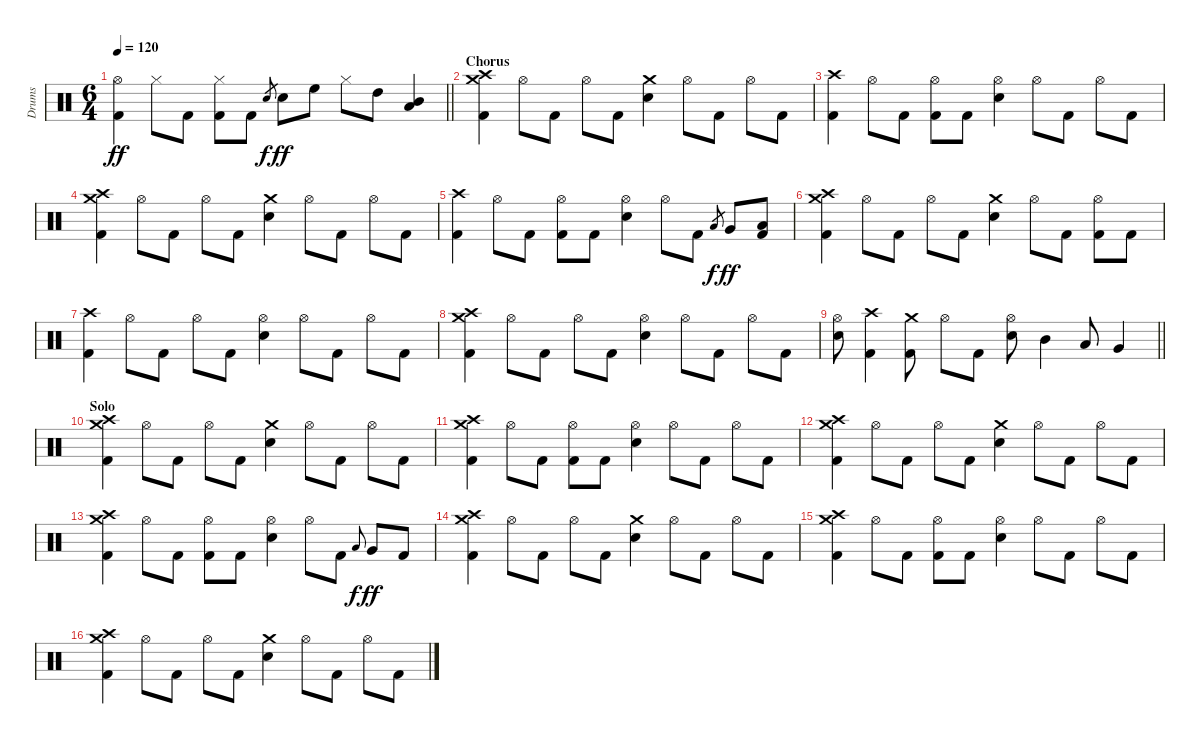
\track ("Drums" "Drums") {instrument percussion}
\staff {score}
\articulation defaults
\ts (6 4)
\tempo 120
\clef neutral
\barLineRight lightlight
\ks c
("Hi-Hat (open)" "Kick (hit) 2").4{dy ff} "Hi-Hat (closed)".8 "Kick (hit) 2".8 ("Hi-Hat (closed)" "Kick (hit) 2").8 "Kick (hit) 2".8 "Electric Snare (hit)".8{gr dy f} "Electric Snare (hit)".8{dy ff} "High Floor Tom (hit)".8 "Hi-Hat (closed)".8 "High Tom (hit)".8 ("Mid Tom (hit)" "Low Tom (hit)").4 |
\section ("" "Chorus")
("Crash medium (hit)" "Crash high (hit)" "Kick (hit) 2").4 "Hi-Hat (open)".8 "Kick (hit) 2".8 "Hi-Hat (open)".8 "Kick (hit) 2".8 ("Crash medium (hit)" "Electric Snare (hit)").4 "Hi-Hat (open)".8 "Kick (hit) 2".8 "Hi-Hat (open)".8 "Kick (hit) 2".8 |
("Crash high (hit)" "Kick (hit) 2").4 "Hi-Hat (open)".8 "Kick (hit) 2".8 ("Hi-Hat (open)" "Kick (hit) 2").8 "Kick (hit) 2".8 ("Hi-Hat (open)" "Electric Snare (hit)").4 "Hi-Hat (open)".8 "Kick (hit) 2".8 "Hi-Hat (open)".8 "Kick (hit) 2".8 |
("Crash medium (hit)" "Crash high (hit)" "Kick (hit) 2").4 "Hi-Hat (open)".8 "Kick (hit) 2".8 "Hi-Hat (open)".8 "Kick (hit) 2".8 ("Crash medium (hit)" "Electric Snare (hit)").4 "Hi-Hat (open)".8 "Kick (hit) 2".8 "Hi-Hat (open)".8 "Kick (hit) 2".8 |
("Crash high (hit)" "Kick (hit) 2").4 "Hi-Hat (open)".8 "Kick (hit) 2".8 ("Hi-Hat (open)" "Kick (hit) 2").8 "Kick (hit) 2".8 ("Hi-Hat (open)" "Electric Snare (hit)").4 "Hi-Hat (open)".8 "Kick (hit) 2".8 "Low Tom (hit)".8{gr dy f} "Very Low Tom (hit)".8{dy ff} ("Low Floor Tom (hit)" "Kick (hit) 2").8 |
("Crash medium (hit)" "Crash high (hit)" "Kick (hit) 2").4 "Hi-Hat (open)".8 "Kick (hit) 2".8 "Hi-Hat (open)".8 "Kick (hit) 2".8 ("Crash medium (hit)" "Electric Snare (hit)").4 "Hi-Hat (open)".8 "Kick (hit) 2".8 ("Hi-Hat (open)" "Kick (hit) 2").8 "Kick (hit) 2".8 |
("Crash high (hit)" "Kick (hit) 2").4 "Hi-Hat (open)".8 "Kick (hit) 2".8 "Hi-Hat (open)".8 "Kick (hit) 2".8 ("Hi-Hat (open)" "Electric Snare (hit)").4 "Hi-Hat (open)".8 "Kick (hit) 2".8 "Hi-Hat (open)".8 "Kick (hit) 2".8 |
("Crash medium (hit)" "Crash high (hit)" "Kick (hit) 2").4 "Hi-Hat (open)".8 "Kick (hit) 2".8 "Hi-Hat (open)".8 "Kick (hit) 2".8 ("Hi-Hat (open)" "Electric Snare (hit)").4 "Hi-Hat (open)".8 "Kick (hit) 2".8 "Hi-Hat (open)".8 "Kick (hit) 2".8 |
\barLineRight lightlight
("Hi-Hat (open)" "Electric Snare (hit)").8 ("Crash high (hit)" "Kick (hit) 2").4 ("Crash medium (hit)" "Kick (hit) 2").8 "Hi-Hat (open)".8 "Kick (hit) 2".8 ("Hi-Hat (open)" "Electric Snare (hit)").8 "Mid Tom (hit)".4 "Low Tom (hit)".8 "Very Low Tom (hit)".4 |
\section ("" "Solo")
("Crash medium (hit)" "Crash high (hit)" "Kick (hit) 2").4 "Hi-Hat (open)".8 "Kick (hit) 2".8 "Hi-Hat (open)".8 "Kick (hit) 2".8 ("Crash medium (hit)" "Electric Snare (hit)").4 "Hi-Hat (open)".8 "Kick (hit) 2".8 "Hi-Hat (open)".8 "Kick (hit) 2".8 |
("Crash high (hit)" "Crash medium (hit)" "Kick (hit) 2").4 "Hi-Hat (open)".8 "Kick (hit) 2".8 ("Hi-Hat (open)" "Kick (hit) 2").8 "Kick (hit) 2".8 ("Hi-Hat (open)" "Electric Snare (hit)").4 "Hi-Hat (open)".8 "Kick (hit) 2".8 "Hi-Hat (open)".8 "Kick (hit) 2".8 |
("Crash high (hit)" "Crash medium (hit)" "Kick (hit) 2").4 "Hi-Hat (open)".8 "Kick (hit) 2".8 "Hi-Hat (open)".8 "Kick (hit) 2".8 ("Crash medium (hit)" "Electric Snare (hit)").4 "Hi-Hat (open)".8 "Kick (hit) 2".8 "Hi-Hat (open)".8 "Kick (hit) 2".8 |
("Crash high (hit)" "Crash medium (hit)" "Kick (hit) 2").4 "Hi-Hat (open)".8 "Kick (hit) 2".8 ("Hi-Hat (open)" "Kick (hit) 2").8 "Kick (hit) 2".8 ("Hi-Hat (open)" "Electric Snare (hit)").4 "Hi-Hat (open)".8 "Kick (hit) 2".8 "Low Tom (hit)".8{gr onbeat dy f} "Very Low Tom (hit)".8{dy ff} "Kick (hit) 2".8 |
("Crash high (hit)" "Crash medium (hit)" "Kick (hit) 2").4 "Hi-Hat (open)".8 "Kick (hit) 2".8 "Hi-Hat (open)".8 "Kick (hit) 2".8 ("Crash medium (hit)" "Electric Snare (hit)").4 "Hi-Hat (open)".8 "Kick (hit) 2".8 "Hi-Hat (open)".8 "Kick (hit) 2".8 |
("Crash high (hit)" "Crash medium (hit)" "Kick (hit) 2").4 "Hi-Hat (open)".8 "Kick (hit) 2".8 ("Hi-Hat (open)" "Kick (hit) 2").8 "Kick (hit) 2".8 ("Hi-Hat (open)" "Electric Snare (hit)").4 "Hi-Hat (open)".8 "Kick (hit) 2".8 "Hi-Hat (open)".8 "Kick (hit) 2".8 |
("Crash high (hit)" "Crash medium (hit)" "Kick (hit) 2").4 "Hi-Hat (open)".8 "Kick (hit) 2".8 "Hi-Hat (open)".8 "Kick (hit) 2".8 ("Crash medium (hit)" "Electric Snare (hit)").4 "Hi-Hat (open)".8 "Kick (hit) 2".8 "Hi-Hat (open)".8 "Kick (hit) 2".8
